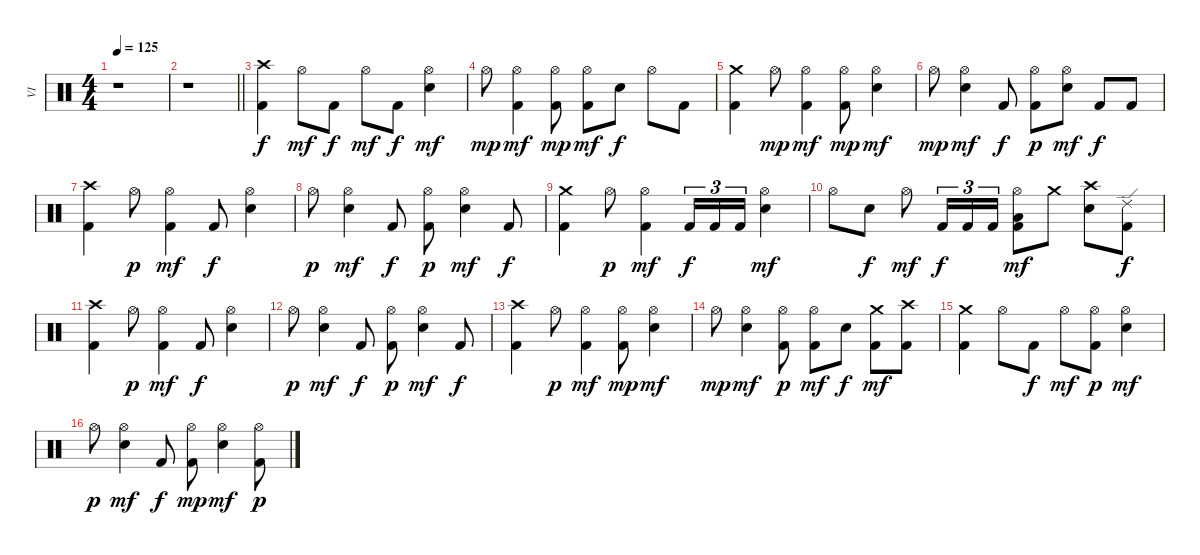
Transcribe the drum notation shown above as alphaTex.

\track ("VI" "VI") {instrument percussion}
\staff {score}
\articulation defaults
\ts (4 4)
\tempo 125
\clef neutral
\ks c
r.1{dy f} |
\barLineRight lightlight
r.1 |
\section ("" "")
("Crash high (hit)" "Kick (hit) 2").4 "Hi-Hat (open)".8{dy mf} "Kick (hit) 2".8{dy f} "Hi-Hat (open)".8{dy mf} "Kick (hit) 2".8{dy f} ("Hi-Hat (open)" "Electric Snare (hit)").4{dy mf} |
"Hi-Hat (open)".8{dy mp} ("Hi-Hat (open)" "Kick (hit) 2").4{dy mf} ("Hi-Hat (open)" "Kick (hit) 2").8{dy mp} ("Hi-Hat (open)" "Kick (hit) 2").8{dy mf} "Electric Snare (hit)".8{dy f} "Hi-Hat (open)".8 "Kick (hit) 2".8 |
("Crash medium (hit)" "Kick (hit) 2").4 "Hi-Hat (open)".8{dy mp} ("Hi-Hat (open)" "Kick (hit) 2").4{dy mf} ("Hi-Hat (open)" "Kick (hit) 2").8{dy mp} ("Hi-Hat (open)" "Electric Snare (hit)").4{dy mf} |
"Hi-Hat (open)".8{dy mp} ("Hi-Hat (open)" "Electric Snare (hit)").4{dy mf} "Kick (hit) 2".8{dy f} ("Hi-Hat (open)" "Kick (hit) 2").8{dy p} ("Hi-Hat (open)" "Electric Snare (hit)").8{dy mf} "Kick (hit) 2".8{dy f} "Kick (hit) 2".8 |
("Crash high (hit)" "Kick (hit) 2").4 "Hi-Hat (open)".8{dy p} ("Hi-Hat (open)" "Kick (hit) 2").4{dy mf} "Kick (hit) 2".8{dy f} ("Hi-Hat (open)" "Electric Snare (hit)").4 |
"Hi-Hat (open)".8{dy p} ("Hi-Hat (open)" "Electric Snare (hit)").4{dy mf} "Kick (hit) 2".8{dy f} ("Hi-Hat (open)" "Kick (hit) 2").8{dy p} ("Hi-Hat (open)" "Electric Snare (hit)").4{dy mf} "Kick (hit) 2".8{dy f} |
("Crash medium (hit)" "Kick (hit) 2").4 "Hi-Hat (open)".8{dy p} ("Hi-Hat (open)" "Kick (hit) 2").4{dy mf} "Kick (hit) 2".16{tu (3 2) dy f} "Kick (hit) 2".16{tu (3 2)} "Kick (hit) 2".16{tu (3 2)} ("Hi-Hat (open)" "Electric Snare (hit)").4{dy mf} |
"Hi-Hat (open)".8 "Electric Snare (hit)".8{dy f} "Hi-Hat (open)".8{dy mf} "Kick (hit) 2".16{tu (3 2) dy f} "Kick (hit) 2".16{tu (3 2)} "Kick (hit) 2".16{tu (3 2)} ("Hi-Hat (open)" "Low Floor Tom (hit)" "Kick (hit) 2").8{dy mf} "Crash medium (hit)".8 ("Crash high (hit)" "Electric Snare (hit)").8 ("Ride (edge) 2" "Kick (hit) 2").8{dy f} |
("Crash high (hit)" "Kick (hit) 2").4 "Hi-Hat (open)".8{dy p} ("Hi-Hat (open)" "Kick (hit) 2").4{dy mf} "Kick (hit) 2".8{dy f} ("Hi-Hat (open)" "Electric Snare (hit)").4 |
"Hi-Hat (open)".8{dy p} ("Hi-Hat (open)" "Electric Snare (hit)").4{dy mf} "Kick (hit) 2".8{dy f} ("Hi-Hat (open)" "Kick (hit) 2").8{dy p} ("Hi-Hat (open)" "Electric Snare (hit)").4{dy mf} "Kick (hit) 2".8{dy f} |
("Crash high (hit)" "Kick (hit) 2").4 "Hi-Hat (open)".8{dy p} ("Hi-Hat (open)" "Kick (hit) 2").4{dy mf} ("Hi-Hat (open)" "Kick (hit) 2").8{dy mp} ("Hi-Hat (open)" "Electric Snare (hit)").4{dy mf} |
"Hi-Hat (open)".8{dy mp} ("Hi-Hat (open)" "Electric Snare (hit)").4{dy mf} ("Hi-Hat (open)" "Kick (hit) 2").8{dy p} ("Hi-Hat (open)" "Kick (hit) 2").8{dy mf} "Electric Snare (hit)".8{dy f} ("Crash medium (hit)" "Kick (hit) 2").8{dy mf} ("Crash high (hit)" "Kick (hit) 2").8 |
("Crash medium (hit)" "Kick (hit) 2").4 "Hi-Hat (open)".8 "Kick (hit) 2".8{dy f} "Hi-Hat (open)".8{dy mf} ("Hi-Hat (open)" "Kick (hit) 2").8{dy p} ("Hi-Hat (open)" "Electric Snare (hit)").4{dy mf} |
"Hi-Hat (open)".8{dy p} ("Hi-Hat (open)" "Electric Snare (hit)").4{dy mf} "Kick (hit) 2".8{dy f} ("Hi-Hat (open)" "Kick (hit) 2").8{dy mp} ("Hi-Hat (open)" "Electric Snare (hit)").4{dy mf} ("Hi-Hat (open)" "Kick (hit) 2").8{dy p}
